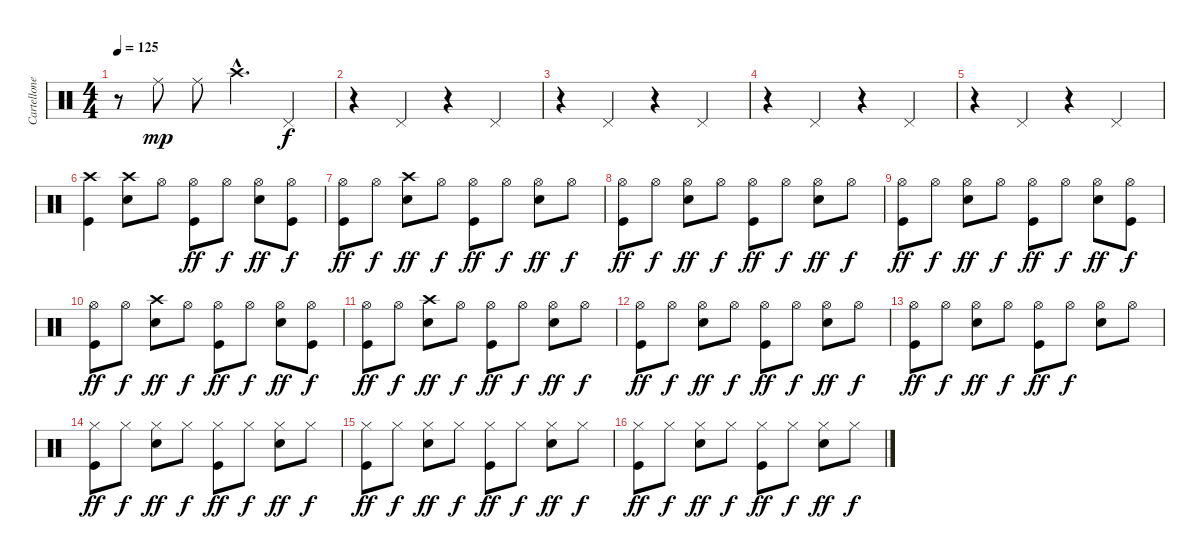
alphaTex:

\track ("Cartellone" "Cartellone") {instrument percussion}
\staff {score}
\articulation defaults
\ts (4 4)
\tempo 125
\clef neutral
\ks c
r.8{dy f} "Ride (middle)".8{dy mp} "Ride (middle)".8 "Crash high (hit)"{hac}.4{d} "Pedal Hi-Hat (hit)".4{dy f} |
r.4 "Pedal Hi-Hat (hit)".4 r.4 "Pedal Hi-Hat (hit)".4 |
r.4 "Pedal Hi-Hat (hit)".4 r.4 "Pedal Hi-Hat (hit)".4 |
r.4 "Pedal Hi-Hat (hit)".4 r.4 "Pedal Hi-Hat (hit)".4 |
r.4 "Pedal Hi-Hat (hit)".4 r.4 "Pedal Hi-Hat (hit)".4 |
("Crash high (hit)" "Kick (hit)").4 ("Crash high (hit)" "Snare (hit) 2").8 "Hi-Hat (open)".8 ("Hi-Hat (open)" "Kick (hit)").8{dy ff} "Hi-Hat (open)".8{dy f} ("Hi-Hat (open)" "Snare (hit) 2").8{dy ff} ("Hi-Hat (open)" "Kick (hit)").8{dy f} |
("Hi-Hat (open)" "Kick (hit)").8{dy ff} "Hi-Hat (open)".8{dy f} ("Crash high (hit)" "Snare (hit) 2").8{dy ff} "Hi-Hat (open)".8{dy f} ("Hi-Hat (open)" "Kick (hit)").8{dy ff} "Hi-Hat (open)".8{dy f} ("Hi-Hat (open)" "Snare (hit) 2").8{dy ff} "Hi-Hat (open)".8{dy f} |
("Hi-Hat (open)" "Kick (hit)").8{dy ff} "Hi-Hat (open)".8{dy f} ("Hi-Hat (open)" "Snare (hit) 2").8{dy ff} "Hi-Hat (open)".8{dy f} ("Hi-Hat (open)" "Kick (hit)").8{dy ff} "Hi-Hat (open)".8{dy f} ("Hi-Hat (open)" "Snare (hit) 2").8{dy ff} "Hi-Hat (open)".8{dy f} |
("Hi-Hat (open)" "Kick (hit)").8{dy ff} "Hi-Hat (open)".8{dy f} ("Hi-Hat (open)" "Snare (hit) 2").8{dy ff} "Hi-Hat (open)".8{dy f} ("Hi-Hat (open)" "Kick (hit)").8{dy ff} "Hi-Hat (open)".8{dy f} ("Hi-Hat (open)" "Snare (hit) 2").8{dy ff} ("Hi-Hat (open)" "Kick (hit)").8{dy f} |
("Hi-Hat (open)" "Kick (hit)").8{dy ff} "Hi-Hat (open)".8{dy f} ("Crash high (hit)" "Snare (hit) 2").8{dy ff} "Hi-Hat (open)".8{dy f} ("Hi-Hat (open)" "Kick (hit)").8{dy ff} "Hi-Hat (open)".8{dy f} ("Hi-Hat (open)" "Snare (hit) 2").8{dy ff} ("Hi-Hat (open)" "Kick (hit)").8{dy f} |
("Hi-Hat (open)" "Kick (hit)").8{dy ff} "Hi-Hat (open)".8{dy f} ("Crash high (hit)" "Snare (hit) 2").8{dy ff} "Hi-Hat (open)".8{dy f} ("Hi-Hat (open)" "Kick (hit)").8{dy ff} "Hi-Hat (open)".8{dy f} ("Hi-Hat (open)" "Snare (hit) 2").8{dy ff} "Hi-Hat (open)".8{dy f} |
("Hi-Hat (open)" "Kick (hit)").8{dy ff} "Hi-Hat (open)".8{dy f} ("Hi-Hat (open)" "Snare (hit) 2").8{dy ff} "Hi-Hat (open)".8{dy f} ("Hi-Hat (open)" "Kick (hit)").8{dy ff} "Hi-Hat (open)".8{dy f} ("Hi-Hat (open)" "Snare (hit) 2").8{dy ff} "Hi-Hat (open)".8{dy f} |
("Hi-Hat (open)" "Kick (hit)").8{dy ff} "Hi-Hat (open)".8{dy f} ("Hi-Hat (open)" "Snare (hit) 2").8{dy ff} "Hi-Hat (open)".8{dy f} ("Hi-Hat (open)" "Kick (hit)").8{dy ff} "Hi-Hat (open)".8{dy f} ("Hi-Hat (open)" "Snare (hit) 2").8 "Hi-Hat (open)".8 |
("Hi-Hat (closed)" "Kick (hit)").8{dy ff} "Hi-Hat (closed)".8{dy f} ("Hi-Hat (closed)" "Snare (hit) 2").8{dy ff} "Hi-Hat (closed)".8{dy f} ("Hi-Hat (closed)" "Kick (hit)").8{dy ff} "Hi-Hat (closed)".8{dy f} ("Hi-Hat (closed)" "Snare (hit) 2").8{dy ff} "Hi-Hat (closed)".8{dy f} |
("Hi-Hat (closed)" "Kick (hit)").8{dy ff} "Hi-Hat (closed)".8{dy f} ("Hi-Hat (closed)" "Snare (hit) 2").8{dy ff} "Hi-Hat (closed)".8{dy f} ("Hi-Hat (closed)" "Kick (hit)").8{dy ff} "Hi-Hat (closed)".8{dy f} ("Hi-Hat (closed)" "Snare (hit) 2").8{dy ff} "Hi-Hat (closed)".8{dy f} |
("Hi-Hat (closed)" "Kick (hit)").8{dy ff} "Hi-Hat (closed)".8{dy f} ("Hi-Hat (closed)" "Snare (hit) 2").8{dy ff} "Hi-Hat (closed)".8{dy f} ("Hi-Hat (closed)" "Kick (hit)").8{dy ff} "Hi-Hat (closed)".8{dy f} ("Hi-Hat (closed)" "Snare (hit) 2").8{dy ff} "Hi-Hat (closed)".8{dy f}
